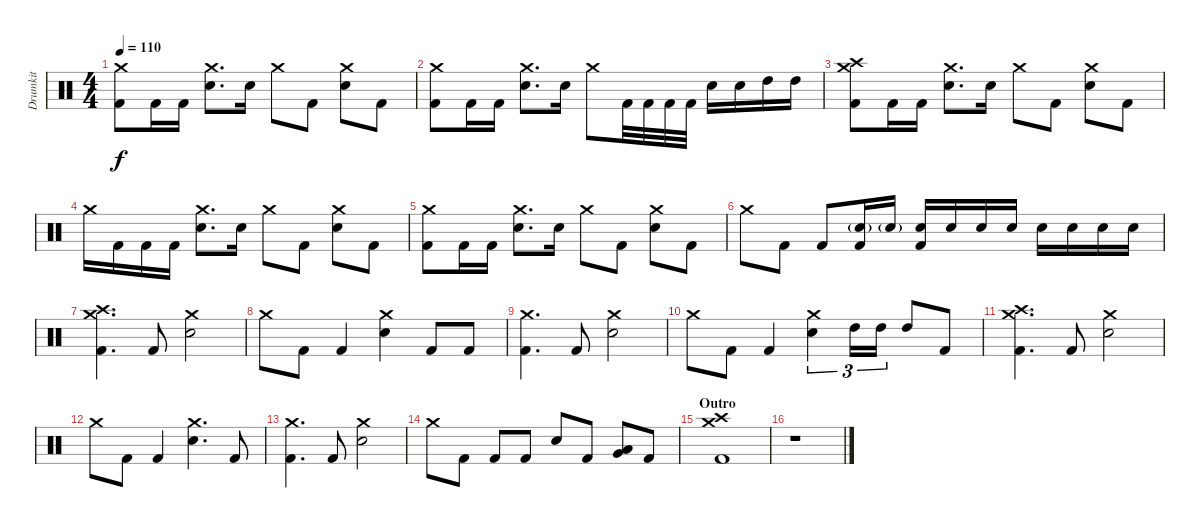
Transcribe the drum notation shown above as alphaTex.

\track ("Drumkit" "Drumkit") {instrument percussion}
\staff {score}
\articulation defaults
\ts (4 4)
\tempo 110
\clef neutral
\ks c
("Crash medium (hit)" "Kick (hit) 2").8{dy f} "Kick (hit) 2".16 "Kick (hit) 2".16 ("Crash medium (hit)" "Snare (hit) 2").8{d} "Snare (hit) 2".16 "Crash medium (hit)".8 "Kick (hit) 2".8 ("Crash medium (hit)" "Snare (hit) 2").8 "Kick (hit) 2".8 |
("Crash medium (hit)" "Kick (hit) 2").8 "Kick (hit) 2".16 "Kick (hit) 2".16 ("Crash medium (hit)" "Snare (hit) 2").8{d} "Snare (hit) 2".16 "Crash medium (hit)".8 "Kick (hit) 2".32 "Kick (hit) 2".32 "Kick (hit) 2".32 "Kick (hit) 2".32 "Snare (hit) 2".16 "Snare (hit) 2".16 "High Tom (hit)".16 "High Tom (hit)".16 |
("Crash medium (hit)" "Crash high (hit)" "Kick (hit) 2").8 "Kick (hit) 2".16 "Kick (hit) 2".16 ("Crash medium (hit)" "Snare (hit) 2").8{d} "Snare (hit) 2".16 "Crash medium (hit)".8 "Kick (hit) 2".8 ("Crash medium (hit)" "Snare (hit) 2").8 "Kick (hit) 2".8 |
"Crash medium (hit)".16 "Kick (hit) 2".16 "Kick (hit) 2".16 "Kick (hit) 2".16 ("Crash medium (hit)" "Snare (hit) 2").8{d} "Snare (hit) 2".16 "Crash medium (hit)".8 "Kick (hit) 2".8 ("Crash medium (hit)" "Snare (hit) 2").8 "Kick (hit) 2".8 |
("Crash medium (hit)" "Kick (hit) 2").8 "Kick (hit) 2".16 "Kick (hit) 2".16 ("Crash medium (hit)" "Snare (hit) 2").8{d} "Snare (hit) 2".16 "Crash medium (hit)".8 "Kick (hit) 2".8 ("Crash medium (hit)" "Snare (hit) 2").8 "Kick (hit) 2".8 |
"Crash medium (hit)".8 "Kick (hit) 2".8 "Kick (hit) 2".8 ("Snare (hit) 2"{g} "Kick (hit) 2").16 "Snare (hit) 2"{g}.16 ("Snare (hit) 2" "Kick (hit) 2").16 "Snare (hit) 2".16 "Snare (hit) 2".16 "Snare (hit) 2".16 "Snare (hit) 2".16 "Snare (hit) 2".16 "Snare (hit) 2".16 "Snare (hit) 2".16 |
("Crash medium (hit)" "Crash high (hit)" "Kick (hit) 2").4{d} "Kick (hit) 2".8 ("Crash medium (hit)" "Snare (hit) 2").2 |
"Crash medium (hit)".8 "Kick (hit) 2".8 "Kick (hit) 2".4 ("Crash medium (hit)" "Snare (hit) 2").4 "Kick (hit) 2".8 "Kick (hit) 2".8 |
("Crash medium (hit)" "Kick (hit) 2").4{d} "Kick (hit) 2".8 ("Crash medium (hit)" "Snare (hit) 2").2 |
"Crash medium (hit)".8 "Kick (hit) 2".8 "Kick (hit) 2".4 ("Crash medium (hit)" "Snare (hit) 2").4{tu (3 2)} "High Tom (hit)".16{tu (3 2)} "High Tom (hit)".16{tu (3 2)} "High Tom (hit)".8 "Kick (hit) 2".8 |
("Crash medium (hit)" "Crash high (hit)" "Kick (hit) 2").4{d} "Kick (hit) 2".8 ("Crash medium (hit)" "Snare (hit) 2").2 |
"Crash medium (hit)".8 "Kick (hit) 2".8 "Kick (hit) 2".4 ("Crash medium (hit)" "Snare (hit) 2").4{d} "Kick (hit) 2".8 |
("Crash medium (hit)" "Kick (hit) 2").4{d} "Kick (hit) 2".8 ("Crash medium (hit)" "Snare (hit) 2").2 |
"Crash medium (hit)".8 "Kick (hit) 2".8 "Kick (hit) 2".8 "Kick (hit) 2".8 "Snare (hit) 2".8 "Kick (hit) 2".8 ("Very Low Tom (hit)" "Low Tom (hit)").8 "Kick (hit) 2".8 |
\section ("" "Outro")
("Crash medium (hit)" "Crash high (hit)" "Kick (hit) 2").1 |
r.1
